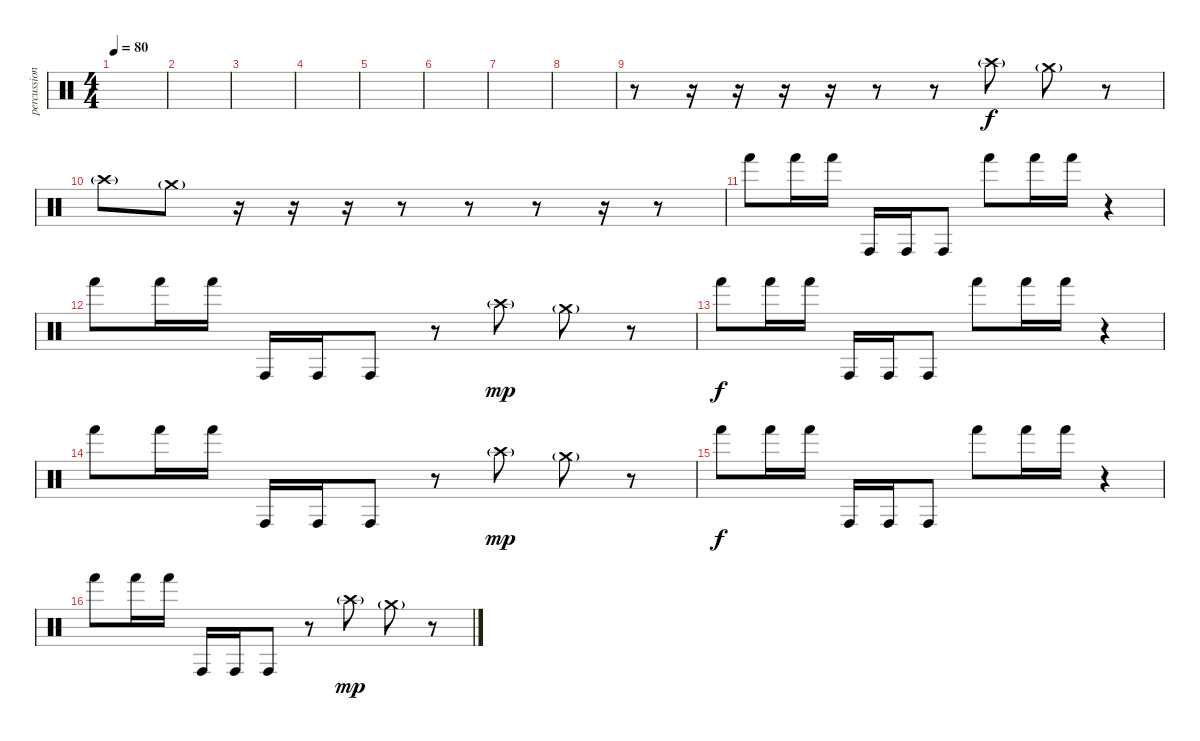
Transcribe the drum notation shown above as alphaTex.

\track ("percussion" "percussion") {instrument percussion}
\staff {score}
\articulation defaults
\ts (4 4)
\tempo 80
\clef neutral
\ks c
|
|
|
|
|
|
|
|
r.8 r.16 r.16 r.16 r.16 r.8 r.8 "Crash high (hit)"{g}.8 "Crash medium (hit)"{g}.8 r.8 |
"Crash high (hit)"{g}.8 "Crash medium (hit)"{g}.8 r.16 r.16 r.16 r.8 r.8 r.8 r.16 r.8 |
"Hand (hit)".8{dy f} "Hand (hit)".16 "Hand (hit)".16 "Conga high (hit)".16 "Conga high (hit)".16 "Conga high (hit)".8 "Hand (hit)".8 "Hand (hit)".16 "Hand (hit)".16 r.4 |
"Hand (hit)".8 "Hand (hit)".16 "Hand (hit)".16 "Conga high (hit)".16 "Conga high (hit)".16 "Conga high (hit)".8 r.8 "Crash high (hit)"{g}.8{dy mp} "Crash medium (hit)"{g}.8 r.8 |
"Hand (hit)".8{dy f} "Hand (hit)".16 "Hand (hit)".16 "Conga high (hit)".16 "Conga high (hit)".16 "Conga high (hit)".8 "Hand (hit)".8 "Hand (hit)".16 "Hand (hit)".16 r.4 |
"Hand (hit)".8 "Hand (hit)".16 "Hand (hit)".16 "Conga high (hit)".16 "Conga high (hit)".16 "Conga high (hit)".8 r.8 "Crash high (hit)"{g}.8{dy mp} "Crash medium (hit)"{g}.8 r.8 |
"Hand (hit)".8{dy f} "Hand (hit)".16 "Hand (hit)".16 "Conga high (hit)".16 "Conga high (hit)".16 "Conga high (hit)".8 "Hand (hit)".8 "Hand (hit)".16 "Hand (hit)".16 r.4 |
"Hand (hit)".8 "Hand (hit)".16 "Hand (hit)".16 "Conga high (hit)".16 "Conga high (hit)".16 "Conga high (hit)".8 r.8 "Crash high (hit)"{g}.8{dy mp} "Crash medium (hit)"{g}.8 r.8
